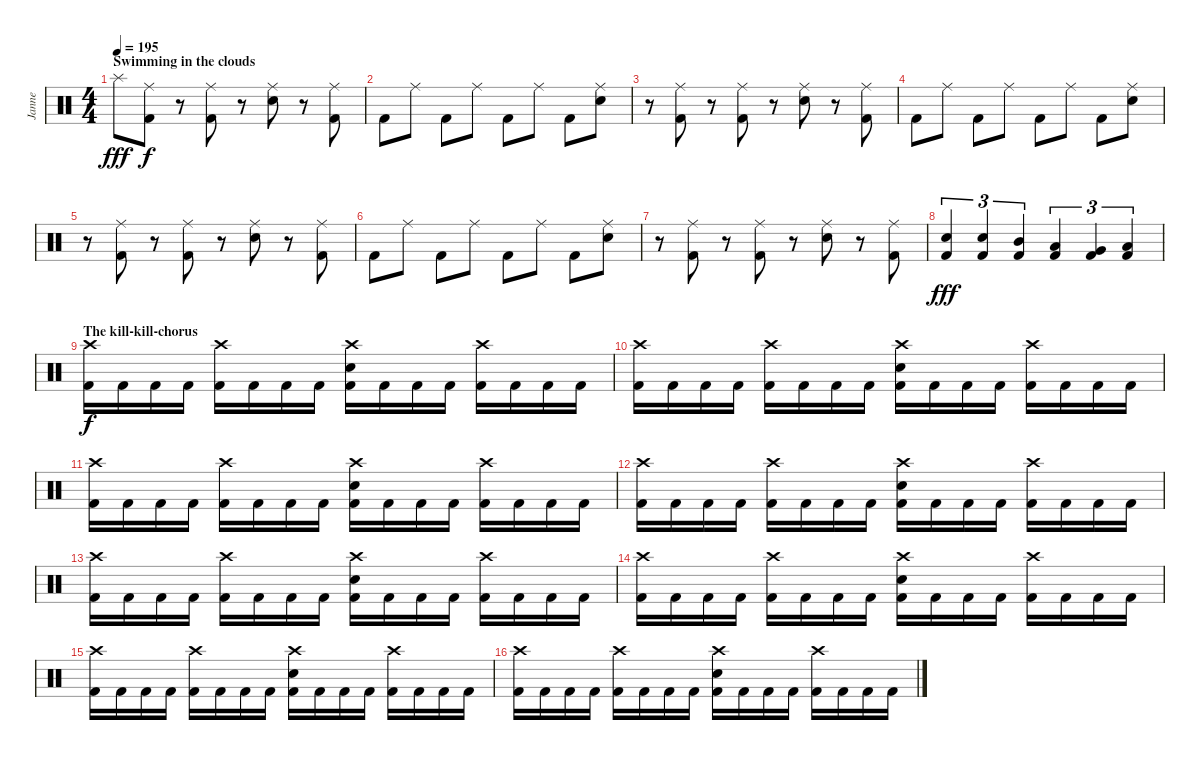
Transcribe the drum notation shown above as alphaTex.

\track ("Janne" "Janne") {instrument percussion}
\staff {score}
\articulation defaults
\ts (4 4)
\section ("" "Swimming in the clouds")
\tempo 195
\clef neutral
\ks c "Splash (hit)".8{dy fff}
("Ride (middle)" "Kick (hit) 2").8{dy f} r.8 ("Ride (middle)" "Kick (hit) 2").8 r.8 ("Ride (middle)" "Electric Snare (hit)").8 r.8 ("Ride (middle)" "Kick (hit) 2").8 |
"Kick (hit) 2".8 "Ride (middle)".8 "Kick (hit) 2".8 "Ride (middle)".8 "Kick (hit) 2".8 "Ride (middle)".8 "Kick (hit) 2".8 ("Ride (middle)" "Electric Snare (hit)").8 |
r.8 ("Ride (middle)" "Kick (hit) 2").8 r.8 ("Ride (middle)" "Kick (hit) 2").8 r.8 ("Ride (middle)" "Electric Snare (hit)").8 r.8 ("Ride (middle)" "Kick (hit) 2").8 |
"Kick (hit) 2".8 "Ride (middle)".8 "Kick (hit) 2".8 "Ride (middle)".8 "Kick (hit) 2".8 "Ride (middle)".8 "Kick (hit) 2".8 ("Ride (middle)" "Electric Snare (hit)").8 |
r.8 ("Ride (middle)" "Kick (hit) 2").8 r.8 ("Ride (middle)" "Kick (hit) 2").8 r.8 ("Ride (middle)" "Electric Snare (hit)").8 r.8 ("Ride (middle)" "Kick (hit) 2").8 |
"Kick (hit) 2".8 "Ride (middle)".8 "Kick (hit) 2".8 "Ride (middle)".8 "Kick (hit) 2".8 "Ride (middle)".8 "Kick (hit) 2".8 ("Ride (middle)" "Electric Snare (hit)").8 |
r.8 ("Ride (middle)" "Kick (hit) 2").8 r.8 ("Ride (middle)" "Kick (hit) 2").8 r.8 ("Ride (middle)" "Electric Snare (hit)").8 r.8 ("Ride (middle)" "Kick (hit) 2").8 |
("Electric Snare (hit)" "Kick (hit) 2").4{tu (3 2) dy fff} ("Electric Snare (hit)" "Kick (hit) 2").4{tu (3 2)} ("Mid Tom (hit)" "Kick (hit) 2").4{tu (3 2)} ("Low Tom (hit)" "Kick (hit) 2").4{tu (3 2)} ("Very Low Tom (hit)" "Kick (hit) 2").4{tu (3 2)} ("Low Floor Tom (hit)" "Kick (hit) 2").4{tu (3 2)} |
\section ("" "The kill-kill-chorus")
("Crash high (hit)" "Kick (hit) 2").16{dy f} "Kick (hit) 2".16 "Kick (hit) 2".16 "Kick (hit) 2".16 ("Crash high (hit)" "Kick (hit) 2").16 "Kick (hit) 2".16 "Kick (hit) 2".16 "Kick (hit) 2".16 ("Crash high (hit)" "Electric Snare (hit)" "Kick (hit) 2").16 "Kick (hit) 2".16 "Kick (hit) 2".16 "Kick (hit) 2".16 ("Crash high (hit)" "Kick (hit) 2").16 "Kick (hit) 2".16 "Kick (hit) 2".16 "Kick (hit) 2".16 |
("Crash high (hit)" "Kick (hit) 2").16 "Kick (hit) 2".16 "Kick (hit) 2".16 "Kick (hit) 2".16 ("Crash high (hit)" "Kick (hit) 2").16 "Kick (hit) 2".16 "Kick (hit) 2".16 "Kick (hit) 2".16 ("Crash high (hit)" "Electric Snare (hit)" "Kick (hit) 2").16 "Kick (hit) 2".16 "Kick (hit) 2".16 "Kick (hit) 2".16 ("Crash high (hit)" "Kick (hit) 2").16 "Kick (hit) 2".16 "Kick (hit) 2".16 "Kick (hit) 2".16 |
("Crash high (hit)" "Kick (hit) 2").16 "Kick (hit) 2".16 "Kick (hit) 2".16 "Kick (hit) 2".16 ("Crash high (hit)" "Kick (hit) 2").16 "Kick (hit) 2".16 "Kick (hit) 2".16 "Kick (hit) 2".16 ("Crash high (hit)" "Electric Snare (hit)" "Kick (hit) 2").16 "Kick (hit) 2".16 "Kick (hit) 2".16 "Kick (hit) 2".16 ("Crash high (hit)" "Kick (hit) 2").16 "Kick (hit) 2".16 "Kick (hit) 2".16 "Kick (hit) 2".16 |
("Crash high (hit)" "Kick (hit) 2").16 "Kick (hit) 2".16 "Kick (hit) 2".16 "Kick (hit) 2".16 ("Crash high (hit)" "Kick (hit) 2").16 "Kick (hit) 2".16 "Kick (hit) 2".16 "Kick (hit) 2".16 ("Crash high (hit)" "Electric Snare (hit)" "Kick (hit) 2").16 "Kick (hit) 2".16 "Kick (hit) 2".16 "Kick (hit) 2".16 ("Crash high (hit)" "Kick (hit) 2").16 "Kick (hit) 2".16 "Kick (hit) 2".16 "Kick (hit) 2".16 |
("Crash high (hit)" "Kick (hit) 2").16 "Kick (hit) 2".16 "Kick (hit) 2".16 "Kick (hit) 2".16 ("Crash high (hit)" "Kick (hit) 2").16 "Kick (hit) 2".16 "Kick (hit) 2".16 "Kick (hit) 2".16 ("Crash high (hit)" "Electric Snare (hit)" "Kick (hit) 2").16 "Kick (hit) 2".16 "Kick (hit) 2".16 "Kick (hit) 2".16 ("Crash high (hit)" "Kick (hit) 2").16 "Kick (hit) 2".16 "Kick (hit) 2".16 "Kick (hit) 2".16 |
("Crash high (hit)" "Kick (hit) 2").16 "Kick (hit) 2".16 "Kick (hit) 2".16 "Kick (hit) 2".16 ("Crash high (hit)" "Kick (hit) 2").16 "Kick (hit) 2".16 "Kick (hit) 2".16 "Kick (hit) 2".16 ("Crash high (hit)" "Electric Snare (hit)" "Kick (hit) 2").16 "Kick (hit) 2".16 "Kick (hit) 2".16 "Kick (hit) 2".16 ("Crash high (hit)" "Kick (hit) 2").16 "Kick (hit) 2".16 "Kick (hit) 2".16 "Kick (hit) 2".16 |
("Crash high (hit)" "Kick (hit) 2").16 "Kick (hit) 2".16 "Kick (hit) 2".16 "Kick (hit) 2".16 ("Crash high (hit)" "Kick (hit) 2").16 "Kick (hit) 2".16 "Kick (hit) 2".16 "Kick (hit) 2".16 ("Crash high (hit)" "Electric Snare (hit)" "Kick (hit) 2").16 "Kick (hit) 2".16 "Kick (hit) 2".16 "Kick (hit) 2".16 ("Crash high (hit)" "Kick (hit) 2").16 "Kick (hit) 2".16 "Kick (hit) 2".16 "Kick (hit) 2".16 |
("Crash high (hit)" "Kick (hit) 2").16 "Kick (hit) 2".16 "Kick (hit) 2".16 "Kick (hit) 2".16 ("Crash high (hit)" "Kick (hit) 2").16 "Kick (hit) 2".16 "Kick (hit) 2".16 "Kick (hit) 2".16 ("Crash high (hit)" "Electric Snare (hit)" "Kick (hit) 2").16 "Kick (hit) 2".16 "Kick (hit) 2".16 "Kick (hit) 2".16 ("Crash high (hit)" "Kick (hit) 2").16 "Kick (hit) 2".16 "Kick (hit) 2".16 "Kick (hit) 2".16
